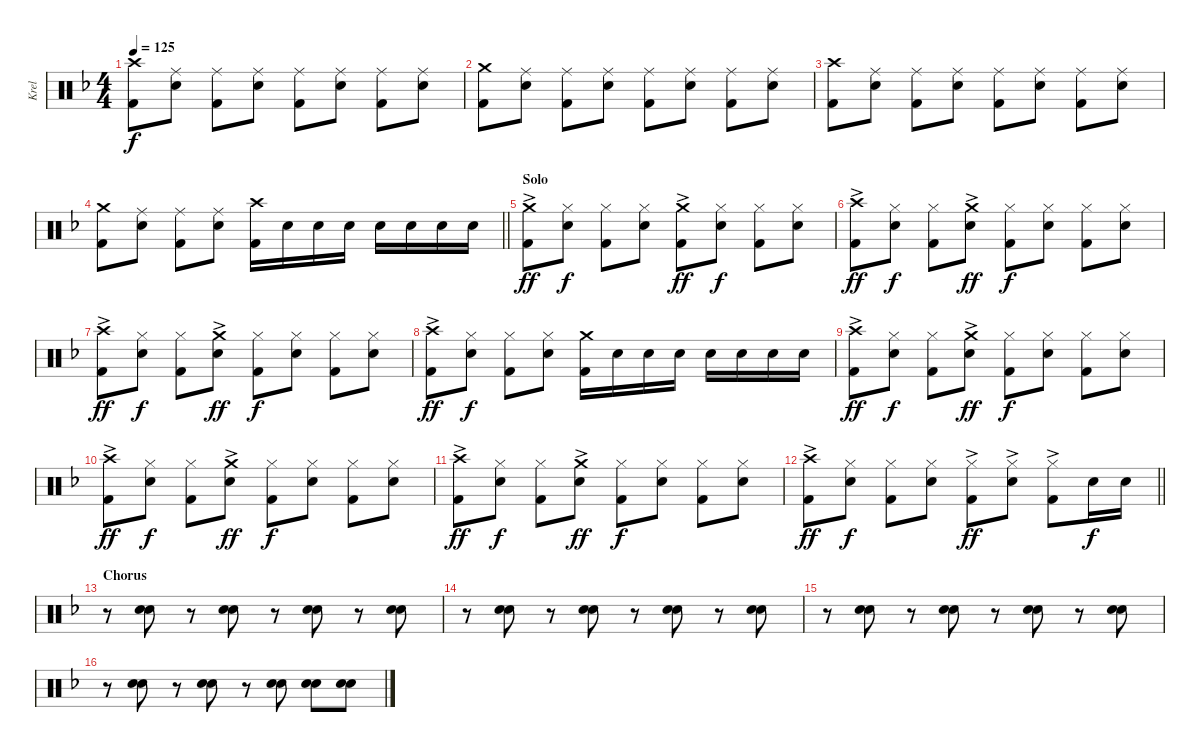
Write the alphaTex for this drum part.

\track ("Krel" "Krel") {instrument percussion}
\staff {score}
\articulation defaults
\ts (4 4)
\tempo 125
\clef neutral
\ks f
("Crash high (hit)" "Kick (hit) 2").8{dy f} ("Ride (middle)" "Snare (hit) 2").8 ("Ride (middle)" "Kick (hit) 2").8 ("Ride (middle)" "Snare (hit) 2").8 ("Ride (middle)" "Kick (hit) 2").8 ("Ride (middle)" "Snare (hit) 2").8 ("Ride (middle)" "Kick (hit) 2").8 ("Ride (middle)" "Snare (hit) 2").8 |
("Crash medium (hit)" "Kick (hit) 2").8 ("Ride (middle)" "Snare (hit) 2").8 ("Ride (middle)" "Kick (hit) 2").8 ("Ride (middle)" "Snare (hit) 2").8 ("Ride (middle)" "Kick (hit) 2").8 ("Ride (middle)" "Snare (hit) 2").8 ("Ride (middle)" "Kick (hit) 2").8 ("Ride (middle)" "Snare (hit) 2").8 |
("Crash high (hit)" "Kick (hit) 2").8 ("Ride (middle)" "Snare (hit) 2").8 ("Ride (middle)" "Kick (hit) 2").8 ("Ride (middle)" "Snare (hit) 2").8 ("Ride (middle)" "Kick (hit) 2").8 ("Ride (middle)" "Snare (hit) 2").8 ("Ride (middle)" "Kick (hit) 2").8 ("Ride (middle)" "Snare (hit) 2").8 |
\barLineRight lightlight
("Crash medium (hit)" "Kick (hit) 2").8 ("Ride (middle)" "Snare (hit) 2").8 ("Ride (middle)" "Kick (hit) 2").8 ("Ride (middle)" "Snare (hit) 2").8 ("Crash high (hit)" "Kick (hit) 2").16 "Snare (hit) 2".16 "Snare (hit) 2".16 "Snare (hit) 2".16 "Snare (hit) 2".16 "Snare (hit) 2".16 "Snare (hit) 2".16 "Snare (hit) 2".16 |
\section ("" "Solo")
("Crash medium (hit)"{ac} "Kick (hit) 2").8{dy ff} ("Hi-Hat (closed)" "Snare (hit) 2").8{dy f} ("Hi-Hat (closed)" "Kick (hit) 2").8 ("Hi-Hat (closed)" "Snare (hit) 2").8 ("Crash medium (hit)"{ac} "Kick (hit) 2").8{dy ff} ("Hi-Hat (closed)" "Snare (hit) 2").8{dy f} ("Hi-Hat (closed)" "Kick (hit) 2").8 ("Hi-Hat (closed)" "Snare (hit) 2").8 |
("Crash high (hit)"{ac} "Kick (hit) 2").8{dy ff} ("Hi-Hat (closed)" "Snare (hit) 2").8{dy f} ("Hi-Hat (closed)" "Kick (hit) 2").8 ("Crash medium (hit)"{ac} "Snare (hit) 2").8{dy ff} ("Hi-Hat (closed)" "Kick (hit) 2").8{dy f} ("Hi-Hat (closed)" "Snare (hit) 2").8 ("Hi-Hat (closed)" "Kick (hit) 2").8 ("Hi-Hat (closed)" "Snare (hit) 2").8 |
("Crash high (hit)"{ac} "Kick (hit) 2").8{dy ff} ("Hi-Hat (closed)" "Snare (hit) 2").8{dy f} ("Hi-Hat (closed)" "Kick (hit) 2").8 ("Crash medium (hit)"{ac} "Snare (hit) 2").8{dy ff} ("Hi-Hat (closed)" "Kick (hit) 2").8{dy f} ("Hi-Hat (closed)" "Snare (hit) 2").8 ("Hi-Hat (closed)" "Kick (hit) 2").8 ("Hi-Hat (closed)" "Snare (hit) 2").8 |
("Crash high (hit)"{ac} "Kick (hit) 2").8{dy ff} ("Hi-Hat (closed)" "Snare (hit) 2").8{dy f} ("Hi-Hat (closed)" "Kick (hit) 2").8 ("Hi-Hat (closed)" "Snare (hit) 2").8 ("Crash medium (hit)" "Kick (hit) 2").16 "Snare (hit) 2".16 "Snare (hit) 2".16 "Snare (hit) 2".16 "Snare (hit) 2".16 "Snare (hit) 2".16 "Snare (hit) 2".16 "Snare (hit) 2".16 |
("Crash high (hit)"{ac} "Kick (hit) 2").8{dy ff} ("Hi-Hat (closed)" "Snare (hit) 2").8{dy f} ("Hi-Hat (closed)" "Kick (hit) 2").8 ("Crash medium (hit)"{ac} "Snare (hit) 2").8{dy ff} ("Hi-Hat (closed)" "Kick (hit) 2").8{dy f} ("Hi-Hat (closed)" "Snare (hit) 2").8 ("Hi-Hat (closed)" "Kick (hit) 2").8 ("Hi-Hat (closed)" "Snare (hit) 2").8 |
("Crash high (hit)"{ac} "Kick (hit) 2").8{dy ff} ("Hi-Hat (closed)" "Snare (hit) 2").8{dy f} ("Hi-Hat (closed)" "Kick (hit) 2").8 ("Crash medium (hit)"{ac} "Snare (hit) 2").8{dy ff} ("Hi-Hat (closed)" "Kick (hit) 2").8{dy f} ("Hi-Hat (closed)" "Snare (hit) 2").8 ("Hi-Hat (closed)" "Kick (hit) 2").8 ("Hi-Hat (closed)" "Snare (hit) 2").8 |
("Crash high (hit)"{ac} "Kick (hit) 2").8{dy ff} ("Hi-Hat (closed)" "Snare (hit) 2").8{dy f} ("Hi-Hat (closed)" "Kick (hit) 2").8 ("Crash medium (hit)"{ac} "Snare (hit) 2").8{dy ff} ("Hi-Hat (closed)" "Kick (hit) 2").8{dy f} ("Hi-Hat (closed)" "Snare (hit) 2").8 ("Hi-Hat (closed)" "Kick (hit) 2").8 ("Hi-Hat (closed)" "Snare (hit) 2").8 |
\barLineRight lightlight
("Crash high (hit)"{ac} "Kick (hit) 2").8{dy ff} ("Hi-Hat (closed)" "Snare (hit) 2").8{dy f} ("Hi-Hat (closed)" "Kick (hit) 2").8 ("Hi-Hat (closed)" "Snare (hit) 2").8 ("Hi-Hat (closed)"{ac} "Kick (hit) 2").8{dy ff} ("Hi-Hat (closed)"{ac} "Snare (hit) 2").8 ("Hi-Hat (closed)"{ac} "Kick (hit) 2").8 "Snare (hit) 2".16{dy f} "Snare (hit) 2".16 |
\section ("" "Chorus")
r.8 ("Snare (hit) 2" "Snare (hit) 2").8{bd 120} r.8 ("Snare (hit) 2" "Snare (hit) 2").8{bd 120} r.8 ("Snare (hit) 2" "Snare (hit) 2").8{bd 120} r.8 ("Snare (hit) 2" "Snare (hit) 2").8{bd 120} |
r.8 ("Snare (hit) 2" "Snare (hit) 2").8{bd 120} r.8 ("Snare (hit) 2" "Snare (hit) 2").8{bd 120} r.8 ("Snare (hit) 2" "Snare (hit) 2").8{bd 120} r.8 ("Snare (hit) 2" "Snare (hit) 2").8{bd 120} |
r.8 ("Snare (hit) 2" "Snare (hit) 2").8{bd 120} r.8 ("Snare (hit) 2" "Snare (hit) 2").8{bd 120} r.8 ("Snare (hit) 2" "Snare (hit) 2").8{bd 120} r.8 ("Snare (hit) 2" "Snare (hit) 2").8{bd 120} |
r.8 ("Snare (hit) 2" "Snare (hit) 2").8{bd 120} r.8 ("Snare (hit) 2" "Snare (hit) 2").8{bd 120} r.8 ("Snare (hit) 2" "Snare (hit) 2").8{bd 120} ("Snare (hit) 2" "Snare (hit) 2").8{bd 120} ("Snare (hit) 2" "Snare (hit) 2").8{bd 120}
